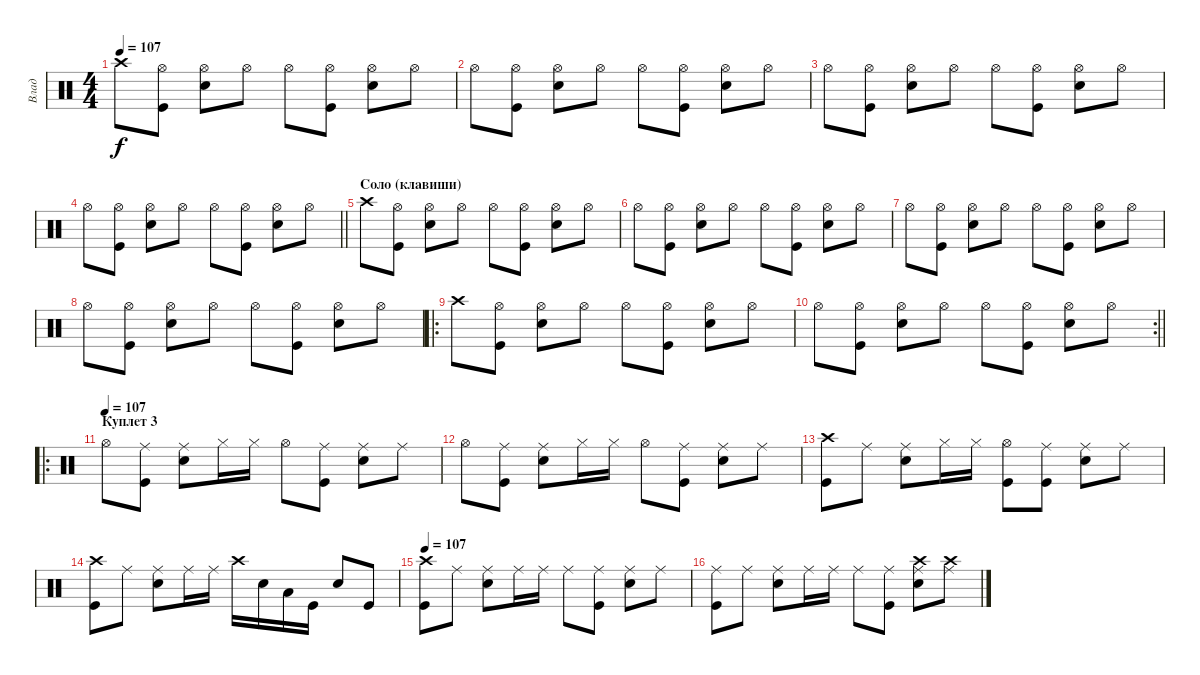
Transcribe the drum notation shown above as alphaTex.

\track ("Влад" "Влад") {instrument percussion}
\staff {score}
\articulation defaults
\ts (4 4)
\tempo 107
\clef neutral
\ks c "Crash high (hit)".8{dy f}
("Hi-Hat (open)" "Kick (hit)").8 ("Hi-Hat (open)" "Snare (hit) 2").8 "Hi-Hat (open)".8 "Hi-Hat (open)".8 ("Hi-Hat (open)" "Kick (hit)").8 ("Hi-Hat (open)" "Snare (hit) 2").8 "Hi-Hat (open)".8 |
"Hi-Hat (open)".8 ("Hi-Hat (open)" "Kick (hit)").8 ("Hi-Hat (open)" "Snare (hit) 2").8 "Hi-Hat (open)".8 "Hi-Hat (open)".8 ("Hi-Hat (open)" "Kick (hit)").8 ("Hi-Hat (open)" "Snare (hit) 2").8 "Hi-Hat (open)".8 |
"Hi-Hat (open)".8 ("Hi-Hat (open)" "Kick (hit)").8 ("Hi-Hat (open)" "Snare (hit) 2").8 "Hi-Hat (open)".8 "Hi-Hat (open)".8 ("Hi-Hat (open)" "Kick (hit)").8 ("Hi-Hat (open)" "Snare (hit) 2").8 "Hi-Hat (open)".8 |
\barLineRight lightlight "Hi-Hat (open)".8
("Hi-Hat (open)" "Kick (hit)").8 ("Hi-Hat (open)" "Snare (hit) 2").8 "Hi-Hat (open)".8 "Hi-Hat (open)".8 ("Hi-Hat (open)" "Kick (hit)").8 ("Hi-Hat (open)" "Snare (hit) 2").8 "Hi-Hat (open)".8 |
\section ("" "Соло (клавиши)")
"Crash high (hit)".8 ("Hi-Hat (open)" "Kick (hit)").8 ("Hi-Hat (open)" "Snare (hit) 2").8 "Hi-Hat (open)".8 "Hi-Hat (open)".8 ("Hi-Hat (open)" "Kick (hit)").8 ("Hi-Hat (open)" "Snare (hit) 2").8 "Hi-Hat (open)".8 |
"Hi-Hat (open)".8 ("Hi-Hat (open)" "Kick (hit)").8 ("Hi-Hat (open)" "Snare (hit) 2").8 "Hi-Hat (open)".8 "Hi-Hat (open)".8 ("Hi-Hat (open)" "Kick (hit)").8 ("Hi-Hat (open)" "Snare (hit) 2").8 "Hi-Hat (open)".8 |
"Hi-Hat (open)".8 ("Hi-Hat (open)" "Kick (hit)").8 ("Hi-Hat (open)" "Snare (hit) 2").8 "Hi-Hat (open)".8 "Hi-Hat (open)".8 ("Hi-Hat (open)" "Kick (hit)").8 ("Hi-Hat (open)" "Snare (hit) 2").8 "Hi-Hat (open)".8 |
"Hi-Hat (open)".8 ("Hi-Hat (open)" "Kick (hit)").8 ("Hi-Hat (open)" "Snare (hit) 2").8 "Hi-Hat (open)".8 "Hi-Hat (open)".8 ("Hi-Hat (open)" "Kick (hit)").8 ("Hi-Hat (open)" "Snare (hit) 2").8 "Hi-Hat (open)".8 |
\ro "Crash high (hit)".8
("Hi-Hat (open)" "Kick (hit)").8 ("Hi-Hat (open)" "Snare (hit) 2").8 "Hi-Hat (open)".8 "Hi-Hat (open)".8 ("Hi-Hat (open)" "Kick (hit)").8 ("Hi-Hat (open)" "Snare (hit) 2").8 "Hi-Hat (open)".8 |
\rc 2
\barLineRight lightlight "Hi-Hat (open)".8
("Hi-Hat (open)" "Kick (hit)").8 ("Hi-Hat (open)" "Snare (hit) 2").8 "Hi-Hat (open)".8 "Hi-Hat (open)".8 ("Hi-Hat (open)" "Kick (hit)").8 ("Hi-Hat (open)" "Snare (hit) 2").8 "Hi-Hat (open)".8 |
\ro
\section ("" "Куплет 3")
\tempo (107)
"Hi-Hat (open)".8 ("Ride (middle)" "Kick (hit)").8 ("Ride (middle)" "Snare (hit) 2").8 "Hi-Hat (closed)".16 "Hi-Hat (closed)".16 "Hi-Hat (open)".8 ("Ride (middle)" "Kick (hit)").8 ("Ride (middle)" "Snare (hit) 2").8 "Ride (middle)".8 |
"Hi-Hat (open)".8 ("Ride (middle)" "Kick (hit)").8 ("Ride (middle)" "Snare (hit) 2").8 "Hi-Hat (closed)".16 "Hi-Hat (closed)".16 "Hi-Hat (open)".8 ("Ride (middle)" "Kick (hit)").8 ("Ride (middle)" "Snare (hit) 2").8 "Ride (middle)".8 |
("Crash high (hit)" "Kick (hit)").8 "Ride (middle)".8 ("Ride (middle)" "Snare (hit) 2").8 "Hi-Hat (closed)".16 "Hi-Hat (closed)".16 ("Hi-Hat (open)" "Kick (hit)").8 ("Ride (middle)" "Kick (hit)").8 ("Ride (middle)" "Snare (hit) 2").8 "Ride (middle)".8 |
("Crash high (hit)" "Kick (hit)").8 "Ride (middle)".8 ("Ride (middle)" "Snare (hit) 2").8 "Ride (middle)".16 "Ride (middle)".16 "Crash high (hit)".16 "Snare (hit) 2".16 "Low Tom (hit)".16 "Kick (hit)".16 "Snare (hit) 2".8 "Kick (hit)".8 |
\tempo 107
("Crash high (hit)" "Kick (hit)").8 "Ride (middle)".8 ("Ride (middle)" "Snare (hit) 2").8 "Ride (middle)".16 "Ride (middle)".16 "Ride (middle)".8 ("Ride (middle)" "Kick (hit)").8 ("Ride (middle)" "Snare (hit) 2").8 "Ride (middle)".8 |
("Ride (middle)" "Kick (hit)").8 "Ride (middle)".8 ("Ride (middle)" "Snare (hit) 2").8 "Ride (middle)".16 "Ride (middle)".16 "Ride (middle)".8 ("Ride (middle)" "Kick (hit)").8 ("Ride (middle)" "Crash high (hit)" "Snare (hit) 2").8 ("Ride (middle)" "Crash high (hit)").8
